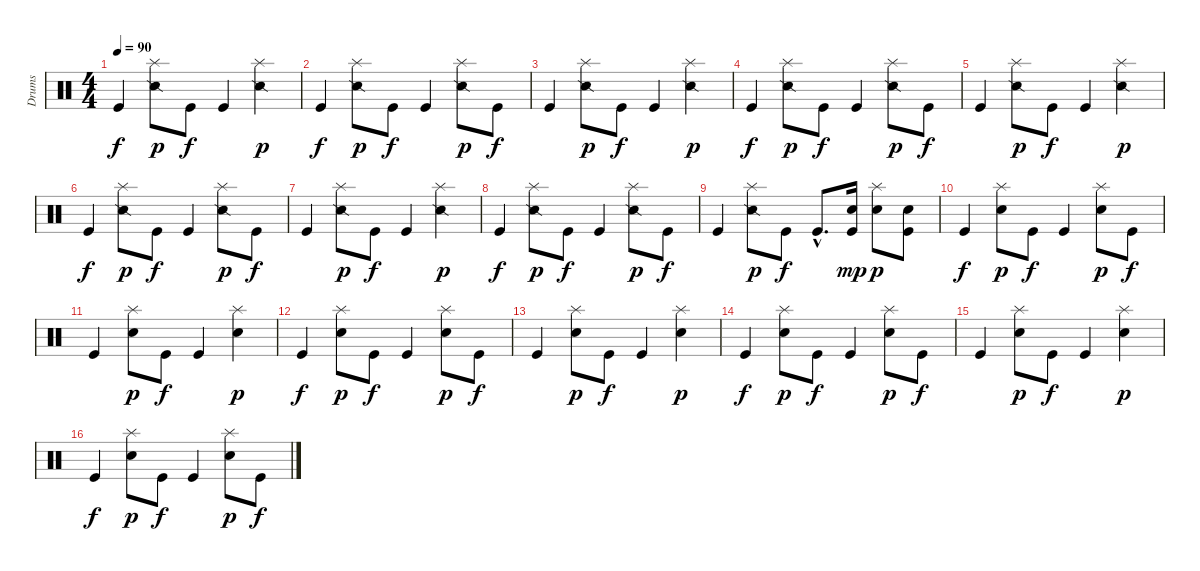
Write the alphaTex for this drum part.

\track ("Drums" "Drums") {instrument percussion}
\staff {score}
\articulation defaults
\ts (4 4)
\tempo 90
\clef neutral
\ks c "Kick (hit)".4{dy f}
("Splash (hit)" "Snare (side stick) 2").8{dy p} "Kick (hit)".8{dy f} "Kick (hit)".4 ("Splash (hit)" "Snare (side stick) 2").4{dy p} |
"Kick (hit)".4{dy f} ("Splash (hit)" "Snare (side stick) 2").8{dy p} "Kick (hit)".8{dy f} "Kick (hit)".4 ("Splash (hit)" "Snare (side stick) 2").8{dy p} "Kick (hit)".8{dy f} |
"Kick (hit)".4 ("Splash (hit)" "Snare (side stick) 2").8{dy p} "Kick (hit)".8{dy f} "Kick (hit)".4 ("Splash (hit)" "Snare (side stick) 2").4{dy p} |
"Kick (hit)".4{dy f} ("Splash (hit)" "Snare (side stick) 2").8{dy p} "Kick (hit)".8{dy f} "Kick (hit)".4 ("Splash (hit)" "Snare (side stick) 2").8{dy p} "Kick (hit)".8{dy f} |
"Kick (hit)".4 ("Splash (hit)" "Snare (side stick) 2").8{dy p} "Kick (hit)".8{dy f} "Kick (hit)".4 ("Splash (hit)" "Snare (side stick) 2").4{dy p} |
"Kick (hit)".4{dy f} ("Splash (hit)" "Snare (side stick) 2").8{dy p} "Kick (hit)".8{dy f} "Kick (hit)".4 ("Splash (hit)" "Snare (side stick) 2").8{dy p} "Kick (hit)".8{dy f} |
"Kick (hit)".4 ("Splash (hit)" "Snare (side stick) 2").8{dy p} "Kick (hit)".8{dy f} "Kick (hit)".4 ("Splash (hit)" "Snare (side stick) 2").4{dy p} |
"Kick (hit)".4{dy f} ("Splash (hit)" "Snare (side stick) 2").8{dy p} "Kick (hit)".8{dy f} "Kick (hit)".4 ("Splash (hit)" "Snare (side stick) 2").8{dy p} "Kick (hit)".8{dy f} |
"Kick (hit)".4 ("Splash (hit)" "Snare (side stick) 2").8{dy p} "Kick (hit)".8{dy f} "Kick (hit)"{hac}.8{d} ("Snare (hit) 2" "Kick (hit)").16{dy mp} ("Splash (hit)" "Snare (hit) 2").8{dy p} ("Snare (hit) 2" "Kick (hit)").8 |
"Kick (hit)".4{dy f} ("Splash (hit)" "Snare (hit) 2").8{dy p} "Kick (hit)".8{dy f} "Kick (hit)".4 ("Splash (hit)" "Snare (hit) 2").8{dy p} "Kick (hit)".8{dy f} |
"Kick (hit)".4 ("Splash (hit)" "Snare (hit) 2").8{dy p} "Kick (hit)".8{dy f} "Kick (hit)".4 ("Splash (hit)" "Snare (hit) 2").4{dy p} |
"Kick (hit)".4{dy f} ("Splash (hit)" "Snare (hit) 2").8{dy p} "Kick (hit)".8{dy f} "Kick (hit)".4 ("Splash (hit)" "Snare (hit) 2").8{dy p} "Kick (hit)".8{dy f} |
"Kick (hit)".4 ("Splash (hit)" "Snare (hit) 2").8{dy p} "Kick (hit)".8{dy f} "Kick (hit)".4 ("Splash (hit)" "Snare (hit) 2").4{dy p} |
"Kick (hit)".4{dy f} ("Splash (hit)" "Snare (hit) 2").8{dy p} "Kick (hit)".8{dy f} "Kick (hit)".4 ("Splash (hit)" "Snare (hit) 2").8{dy p} "Kick (hit)".8{dy f} |
"Kick (hit)".4 ("Splash (hit)" "Snare (hit) 2").8{dy p} "Kick (hit)".8{dy f} "Kick (hit)".4 ("Splash (hit)" "Snare (hit) 2").4{dy p} |
"Kick (hit)".4{dy f} ("Splash (hit)" "Snare (hit) 2").8{dy p} "Kick (hit)".8{dy f} "Kick (hit)".4 ("Splash (hit)" "Snare (hit) 2").8{dy p} "Kick (hit)".8{dy f}
